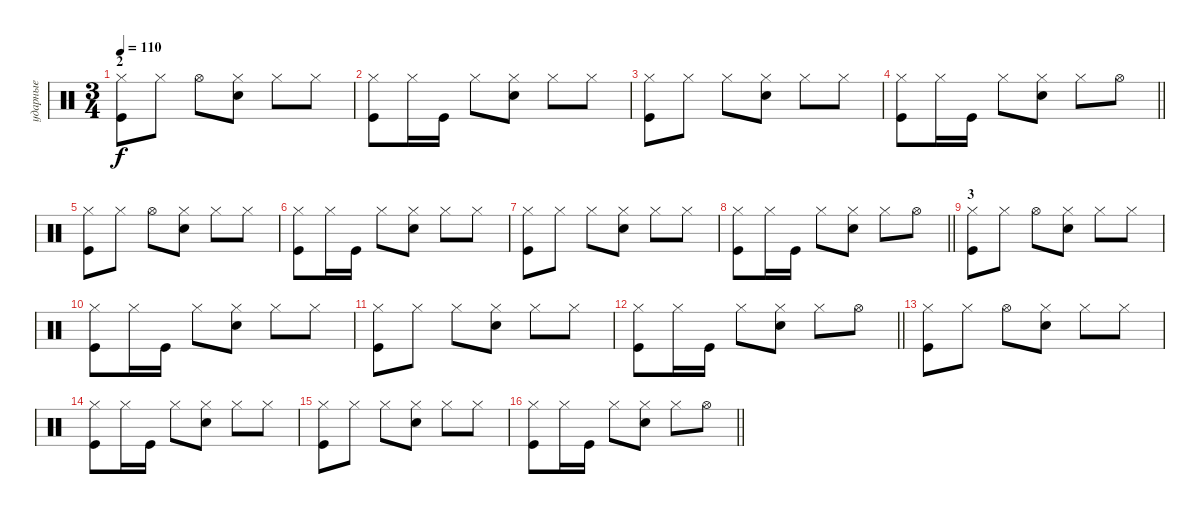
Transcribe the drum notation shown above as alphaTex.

\track ("ударные" "ударные") {instrument percussion}
\staff {score}
\articulation defaults
\ts (3 4)
\section ("" "2")
\tempo 110
\clef neutral
\ks c
("Hi-Hat (closed)" "Kick (hit)").8{dy f} "Hi-Hat (closed)".8 "Hi-Hat (open)".8 ("Hi-Hat (closed)" "Electric Snare (hit)").8 "Hi-Hat (closed)".8 "Hi-Hat (closed)".8 |
("Hi-Hat (closed)" "Kick (hit)").8 "Hi-Hat (closed)".16 "Kick (hit)".16 "Hi-Hat (closed)".8 ("Hi-Hat (closed)" "Electric Snare (hit)").8 "Hi-Hat (closed)".8 "Hi-Hat (closed)".8 |
("Hi-Hat (closed)" "Kick (hit)").8 "Hi-Hat (closed)".8 "Hi-Hat (closed)".8 ("Hi-Hat (closed)" "Electric Snare (hit)").8 "Hi-Hat (closed)".8 "Hi-Hat (closed)".8 |
\barLineRight lightlight
("Hi-Hat (closed)" "Kick (hit)").8 "Hi-Hat (closed)".16 "Kick (hit)".16 "Hi-Hat (closed)".8 ("Hi-Hat (closed)" "Electric Snare (hit)").8 "Hi-Hat (closed)".8 "Hi-Hat (open)".8 |
("Hi-Hat (closed)" "Kick (hit)").8 "Hi-Hat (closed)".8 "Hi-Hat (open)".8 ("Hi-Hat (closed)" "Electric Snare (hit)").8 "Hi-Hat (closed)".8 "Hi-Hat (closed)".8 |
("Hi-Hat (closed)" "Kick (hit)").8 "Hi-Hat (closed)".16 "Kick (hit)".16 "Hi-Hat (closed)".8 ("Hi-Hat (closed)" "Electric Snare (hit)").8 "Hi-Hat (closed)".8 "Hi-Hat (closed)".8 |
("Hi-Hat (closed)" "Kick (hit)").8 "Hi-Hat (closed)".8 "Hi-Hat (closed)".8 ("Hi-Hat (closed)" "Electric Snare (hit)").8 "Hi-Hat (closed)".8 "Hi-Hat (closed)".8 |
\barLineRight lightlight
("Hi-Hat (closed)" "Kick (hit)").8 "Hi-Hat (closed)".16 "Kick (hit)".16 "Hi-Hat (closed)".8 ("Hi-Hat (closed)" "Electric Snare (hit)").8 "Hi-Hat (closed)".8 "Hi-Hat (open)".8 |
\section ("" "3")
("Hi-Hat (closed)" "Kick (hit)").8 "Hi-Hat (closed)".8 "Hi-Hat (open)".8 ("Hi-Hat (closed)" "Electric Snare (hit)").8 "Hi-Hat (closed)".8 "Hi-Hat (closed)".8 |
("Hi-Hat (closed)" "Kick (hit)").8 "Hi-Hat (closed)".16 "Kick (hit)".16 "Hi-Hat (closed)".8 ("Hi-Hat (closed)" "Electric Snare (hit)").8 "Hi-Hat (closed)".8 "Hi-Hat (closed)".8 |
("Hi-Hat (closed)" "Kick (hit)").8 "Hi-Hat (closed)".8 "Hi-Hat (closed)".8 ("Hi-Hat (closed)" "Electric Snare (hit)").8 "Hi-Hat (closed)".8 "Hi-Hat (closed)".8 |
\barLineRight lightlight
("Hi-Hat (closed)" "Kick (hit)").8 "Hi-Hat (closed)".16 "Kick (hit)".16 "Hi-Hat (closed)".8 ("Hi-Hat (closed)" "Electric Snare (hit)").8 "Hi-Hat (closed)".8 "Hi-Hat (open)".8 |
("Hi-Hat (closed)" "Kick (hit)").8 "Hi-Hat (closed)".8 "Hi-Hat (open)".8 ("Hi-Hat (closed)" "Electric Snare (hit)").8 "Hi-Hat (closed)".8 "Hi-Hat (closed)".8 |
("Hi-Hat (closed)" "Kick (hit)").8 "Hi-Hat (closed)".16 "Kick (hit)".16 "Hi-Hat (closed)".8 ("Hi-Hat (closed)" "Electric Snare (hit)").8 "Hi-Hat (closed)".8 "Hi-Hat (closed)".8 |
("Hi-Hat (closed)" "Kick (hit)").8 "Hi-Hat (closed)".8 "Hi-Hat (closed)".8 ("Hi-Hat (closed)" "Electric Snare (hit)").8 "Hi-Hat (closed)".8 "Hi-Hat (closed)".8 |
\barLineRight lightlight
("Hi-Hat (closed)" "Kick (hit)").8 "Hi-Hat (closed)".16 "Kick (hit)".16 "Hi-Hat (closed)".8 ("Hi-Hat (closed)" "Electric Snare (hit)").8 "Hi-Hat (closed)".8 "Hi-Hat (open)".8
